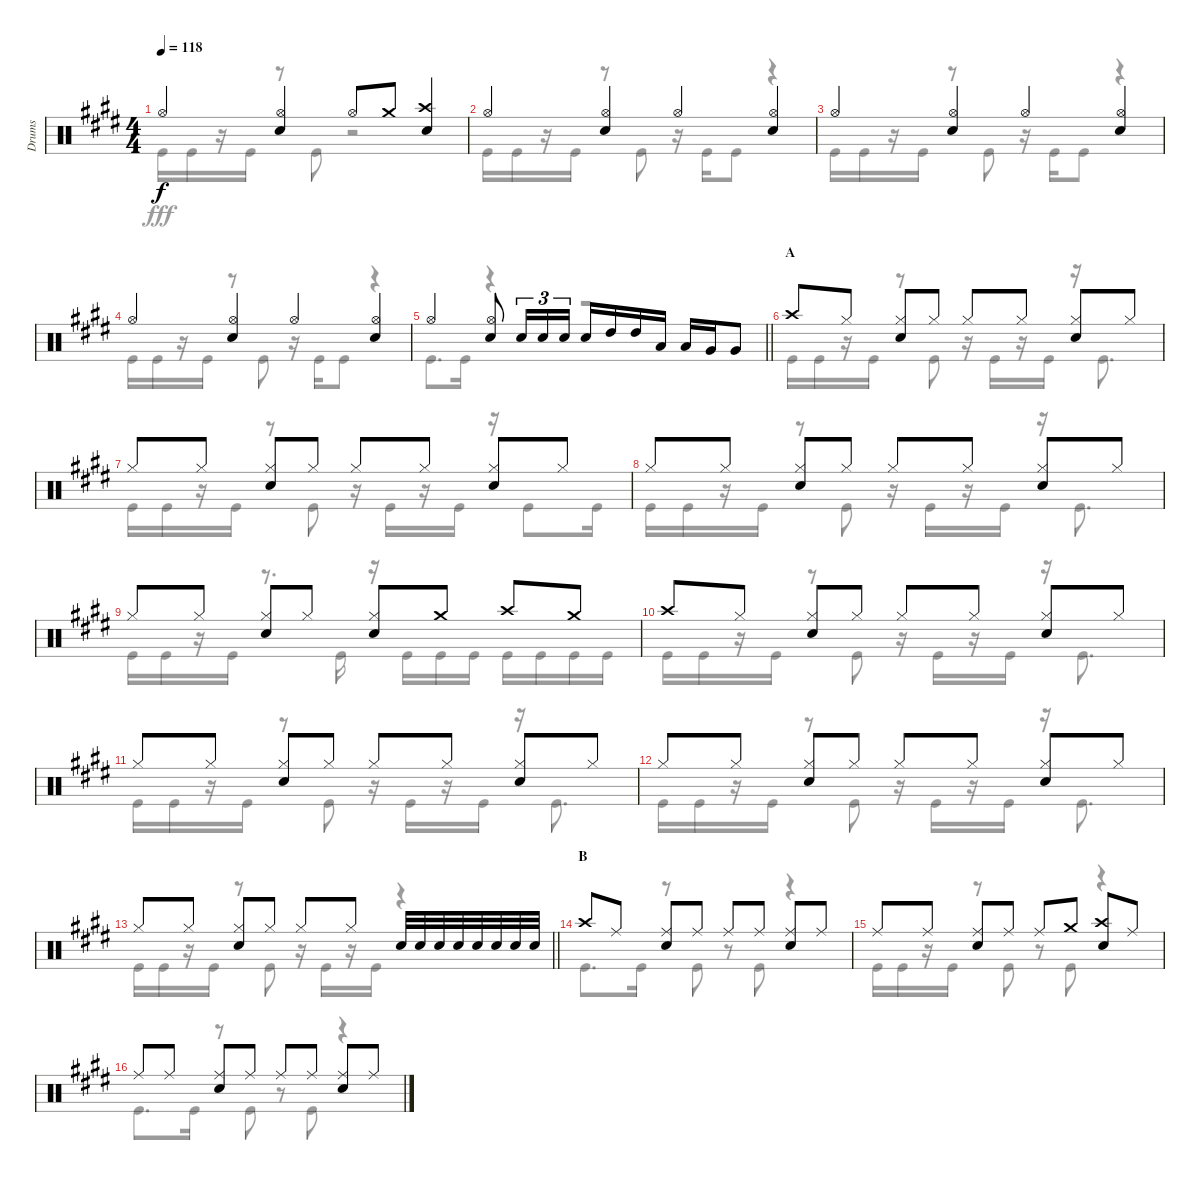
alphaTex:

\track ("Drums" "Drums") {instrument percussion}
\staff {score}
\articulation defaults
\voice
\ts (4 4)
\tempo 118
\clef neutral
\ks e "Hi-Hat (open)".4{dy f}
("Hi-Hat (open)" "Snare (hit) 2").4 "Hi-Hat (open)".8 "Crash medium (hit)".8 ("Crash high (hit)" "Snare (hit) 2").4 |
"Hi-Hat (open)".4 ("Hi-Hat (open)" "Snare (hit) 2").4 "Hi-Hat (open)".4 ("Hi-Hat (open)" "Snare (hit) 2").4 |
"Hi-Hat (open)".4 ("Hi-Hat (open)" "Snare (hit) 2").4 "Hi-Hat (open)".4 ("Hi-Hat (open)" "Snare (hit) 2").4 |
"Hi-Hat (open)".4 ("Hi-Hat (open)" "Snare (hit) 2").4 "Hi-Hat (open)".4 ("Hi-Hat (open)" "Snare (hit) 2").4 |
\barLineRight lightlight "Hi-Hat (open)".4
("Hi-Hat (open)" "Snare (hit) 2").8 "Snare (hit) 2".16{tu (3 2)} "Snare (hit) 2".16{tu (3 2)} "Snare (hit) 2".16{tu (3 2)} "Snare (hit) 2".16 "High Tom (hit)".16 "High Tom (hit)".16 "Low Tom (hit)".16 "Low Tom (hit)".16 "Very Low Tom (hit)".16 "Very Low Tom (hit)".8 |
\section ("" "A")
"Crash high (hit)".8 "Hi-Hat (closed)".8 ("Hi-Hat (closed)" "Snare (hit) 2").8 "Hi-Hat (closed)".8 "Hi-Hat (closed)".8 "Hi-Hat (closed)".8 ("Hi-Hat (closed)" "Snare (hit) 2").8 "Hi-Hat (closed)".8 |
"Hi-Hat (closed)".8 "Hi-Hat (closed)".8 ("Hi-Hat (closed)" "Snare (hit) 2").8 "Hi-Hat (closed)".8 "Hi-Hat (closed)".8 "Hi-Hat (closed)".8 ("Hi-Hat (closed)" "Snare (hit) 2").8 "Hi-Hat (closed)".8 |
"Hi-Hat (closed)".8 "Hi-Hat (closed)".8 ("Hi-Hat (closed)" "Snare (hit) 2").8 "Hi-Hat (closed)".8 "Hi-Hat (closed)".8 "Hi-Hat (closed)".8 ("Hi-Hat (closed)" "Snare (hit) 2").8 "Hi-Hat (closed)".8 |
"Hi-Hat (closed)".8 "Hi-Hat (closed)".8 ("Hi-Hat (closed)" "Snare (hit) 2").8 "Hi-Hat (closed)".8 ("Hi-Hat (closed)" "Snare (hit) 2").8 "Crash medium (hit)".8 "Crash high (hit)".8 "Crash medium (hit)".8 |
"Crash high (hit)".8 "Hi-Hat (closed)".8 ("Hi-Hat (closed)" "Snare (hit) 2").8 "Hi-Hat (closed)".8 "Hi-Hat (closed)".8 "Hi-Hat (closed)".8 ("Hi-Hat (closed)" "Snare (hit) 2").8 "Hi-Hat (closed)".8 |
"Hi-Hat (closed)".8 "Hi-Hat (closed)".8 ("Hi-Hat (closed)" "Snare (hit) 2").8 "Hi-Hat (closed)".8 "Hi-Hat (closed)".8 "Hi-Hat (closed)".8 ("Hi-Hat (closed)" "Snare (hit) 2").8 "Hi-Hat (closed)".8 |
"Hi-Hat (closed)".8 "Hi-Hat (closed)".8 ("Hi-Hat (closed)" "Snare (hit) 2").8 "Hi-Hat (closed)".8 "Hi-Hat (closed)".8 "Hi-Hat (closed)".8 ("Hi-Hat (closed)" "Snare (hit) 2").8 "Hi-Hat (closed)".8 |
\barLineRight lightlight "Hi-Hat (closed)".8 "Hi-Hat (closed)".8
("Hi-Hat (closed)" "Snare (hit) 2").8 "Hi-Hat (closed)".8 "Hi-Hat (closed)".8 "Hi-Hat (closed)".8 "Snare (hit) 2".32 "Snare (hit) 2".32 "Snare (hit) 2".32 "Snare (hit) 2".32 "Snare (hit) 2".32 "Snare (hit) 2".32 "Snare (hit) 2".32 "Snare (hit) 2".32 |
\section ("" "B")
"Crash high (hit)".8 "Ride (middle)".8 ("Ride (middle)" "Snare (hit) 2").8 "Ride (middle)".8 "Ride (middle)".8 "Ride (middle)".8 ("Ride (middle)" "Snare (hit) 2").8 "Ride (middle)".8 |
"Ride (middle)".8 "Ride (middle)".8 ("Ride (middle)" "Snare (hit) 2").8 "Ride (middle)".8 "Ride (middle)".8 "Crash medium (hit)".8 ("Crash high (hit)" "Snare (hit) 2").8 "Ride (middle)".8 |
"Ride (middle)".8 "Ride (middle)".8 ("Ride (middle)" "Snare (hit) 2").8 "Ride (middle)".8 "Ride (middle)".8 "Ride (middle)".8 ("Ride (middle)" "Snare (hit) 2").8 "Ride (middle)".8
\voice
\clef neutral
\ottava regular
\simile none
\ks e "Kick (hit)".16{dy fff} "Kick (hit)".16
r.16 "Kick (hit)".16 r.8 "Kick (hit)".8 r.2 |
"Kick (hit)".16 "Kick (hit)".16 r.16 "Kick (hit)".16 r.8 "Kick (hit)".8 r.16 "Kick (hit)".16 "Kick (hit)".8 r.4 |
"Kick (hit)".16 "Kick (hit)".16 r.16 "Kick (hit)".16 r.8 "Kick (hit)".8 r.16 "Kick (hit)".16 "Kick (hit)".8 r.4 |
"Kick (hit)".16 "Kick (hit)".16 r.16 "Kick (hit)".16 r.8 "Kick (hit)".8 r.16 "Kick (hit)".16 "Kick (hit)".8 r.4 |
\barLineRight lightlight "Kick (hit)".8{d} "Kick (hit)".16
r.4 r.2 |
"Kick (hit)".16 "Kick (hit)".16 r.16 "Kick (hit)".16 r.8 "Kick (hit)".8 r.16 "Kick (hit)".16 r.16 "Kick (hit)".16 r.16 "Kick (hit)".8{d} |
"Kick (hit)".16 "Kick (hit)".16 r.16 "Kick (hit)".16 r.8 "Kick (hit)".8 r.16 "Kick (hit)".16 r.16 "Kick (hit)".16 r.16 "Kick (hit)".8 "Kick (hit)".16 |
"Kick (hit)".16 "Kick (hit)".16 r.16 "Kick (hit)".16 r.8 "Kick (hit)".8 r.16 "Kick (hit)".16 r.16 "Kick (hit)".16 r.16 "Kick (hit)".8{d} |
"Kick (hit)".16 "Kick (hit)".16 r.16 "Kick (hit)".16 r.8{d} "Kick (hit)".16 r.16 "Kick (hit)".16 "Kick (hit)".16 "Kick (hit)".16 "Kick (hit)".16 "Kick (hit)".16 "Kick (hit)".16 "Kick (hit)".16 |
"Kick (hit)".16 "Kick (hit)".16 r.16 "Kick (hit)".16 r.8 "Kick (hit)".8 r.16 "Kick (hit)".16 r.16 "Kick (hit)".16 r.16 "Kick (hit)".8{d} |
"Kick (hit)".16 "Kick (hit)".16 r.16 "Kick (hit)".16 r.8 "Kick (hit)".8 r.16 "Kick (hit)".16 r.16 "Kick (hit)".16 r.16 "Kick (hit)".8{d} |
"Kick (hit)".16 "Kick (hit)".16 r.16 "Kick (hit)".16 r.8 "Kick (hit)".8 r.16 "Kick (hit)".16 r.16 "Kick (hit)".16 r.16 "Kick (hit)".8{d} |
\barLineRight lightlight "Kick (hit)".16 "Kick (hit)".16
r.16 "Kick (hit)".16 r.8 "Kick (hit)".8 r.16 "Kick (hit)".16 r.16 "Kick (hit)".16 r.4 |
"Kick (hit)".8{d} "Kick (hit)".16 r.8 "Kick (hit)".8 r.8 "Kick (hit)".8 r.4 |
"Kick (hit)".16 "Kick (hit)".16 r.16 "Kick (hit)".16 r.8 "Kick (hit)".8 r.8 "Kick (hit)".8 r.4 |
"Kick (hit)".8{d} "Kick (hit)".16 r.8 "Kick (hit)".8 r.8 "Kick (hit)".8 r.4
